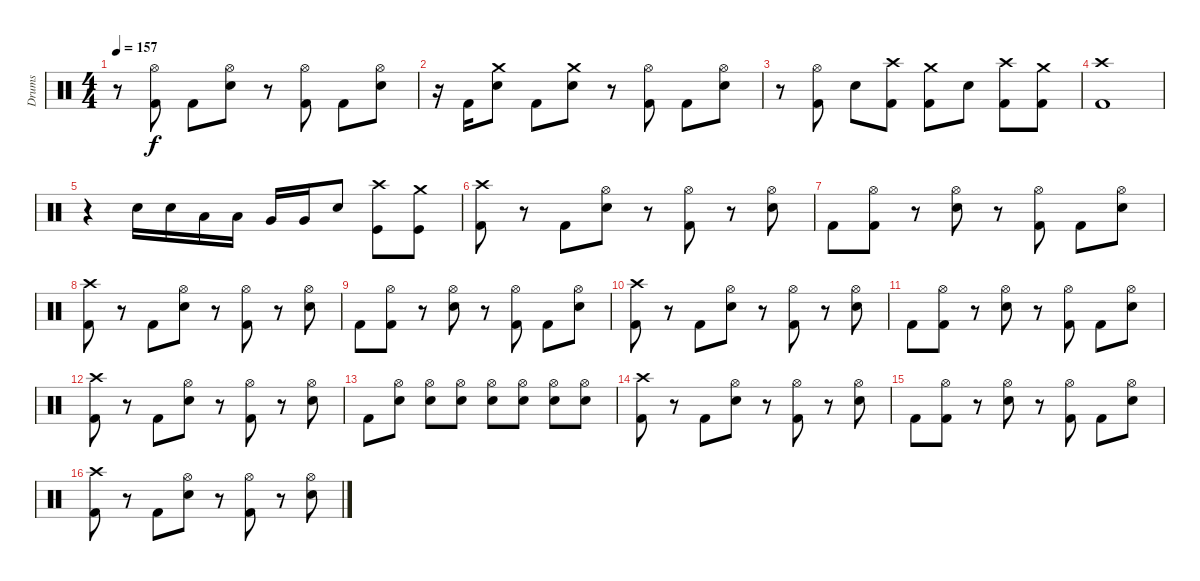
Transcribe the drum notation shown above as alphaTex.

\track ("Drums" "Drums") {instrument percussion}
\staff {score}
\articulation defaults
\ts (4 4)
\tempo 157
\clef neutral
\ks c
r.8{dy f} ("Hi-Hat (open)" "Kick (hit) 2").8 "Kick (hit) 2".8 ("Hi-Hat (open)" "Electric Snare (hit)").8 r.8 ("Hi-Hat (open)" "Kick (hit) 2").8 "Kick (hit) 2".8 ("Hi-Hat (open)" "Electric Snare (hit)").8 |
r.16 "Kick (hit) 2".16 ("Crash medium (hit)" "Electric Snare (hit)").8 "Kick (hit) 2".8 ("Crash medium (hit)" "Electric Snare (hit)").8 r.8 ("Hi-Hat (open)" "Kick (hit) 2").8 "Kick (hit) 2".8 ("Hi-Hat (open)" "Electric Snare (hit)").8 |
r.8 ("Hi-Hat (open)" "Kick (hit) 2").8 "Electric Snare (hit)".8 ("Crash high (hit)" "Kick (hit) 2").8 ("Crash medium (hit)" "Kick (hit) 2").8 "Electric Snare (hit)".8 ("Crash high (hit)" "Kick (hit) 2").8 ("Crash medium (hit)" "Kick (hit) 2").8 |
("Crash high (hit)" "Kick (hit) 2").1 |
r.4 "Electric Snare (hit)".16 "Electric Snare (hit)".16 "Low Tom (hit)".16 "Low Tom (hit)".16 "Very Low Tom (hit)".16 "Very Low Tom (hit)".16 "Electric Snare (hit)".8 ("Crash high (hit)" "Kick (hit)").8 ("Crash medium (hit)" "Kick (hit)").8 |
("Crash high (hit)" "Kick (hit) 2").8 r.8 "Kick (hit) 2".8 ("Hi-Hat (open)" "Electric Snare (hit)").8 r.8 ("Hi-Hat (open)" "Kick (hit) 2").8 r.8 ("Hi-Hat (open)" "Electric Snare (hit)").8 |
"Kick (hit) 2".8 ("Hi-Hat (open)" "Kick (hit) 2").8 r.8 ("Hi-Hat (open)" "Electric Snare (hit)").8 r.8 ("Hi-Hat (open)" "Kick (hit) 2").8 "Kick (hit) 2".8 ("Hi-Hat (open)" "Electric Snare (hit)").8 |
("Crash high (hit)" "Kick (hit) 2").8 r.8 "Kick (hit) 2".8 ("Hi-Hat (open)" "Electric Snare (hit)").8 r.8 ("Hi-Hat (open)" "Kick (hit) 2").8 r.8 ("Hi-Hat (open)" "Electric Snare (hit)").8 |
"Kick (hit) 2".8 ("Hi-Hat (open)" "Kick (hit) 2").8 r.8 ("Hi-Hat (open)" "Electric Snare (hit)").8 r.8 ("Hi-Hat (open)" "Kick (hit) 2").8 "Kick (hit) 2".8 ("Hi-Hat (open)" "Electric Snare (hit)").8 |
("Crash high (hit)" "Kick (hit) 2").8 r.8 "Kick (hit) 2".8 ("Hi-Hat (open)" "Electric Snare (hit)").8 r.8 ("Hi-Hat (open)" "Kick (hit) 2").8 r.8 ("Hi-Hat (open)" "Electric Snare (hit)").8 |
"Kick (hit) 2".8 ("Hi-Hat (open)" "Kick (hit) 2").8 r.8 ("Hi-Hat (open)" "Electric Snare (hit)").8 r.8 ("Hi-Hat (open)" "Kick (hit) 2").8 "Kick (hit) 2".8 ("Hi-Hat (open)" "Electric Snare (hit)").8 |
("Crash high (hit)" "Kick (hit) 2").8 r.8 "Kick (hit) 2".8 ("Hi-Hat (open)" "Electric Snare (hit)").8 r.8 ("Hi-Hat (open)" "Kick (hit) 2").8 r.8 ("Hi-Hat (open)" "Electric Snare (hit)").8 |
"Kick (hit) 2".8 ("Hi-Hat (open)" "Electric Snare (hit)").8 ("Hi-Hat (open)" "Electric Snare (hit)").8 ("Hi-Hat (open)" "Electric Snare (hit)").8 ("Hi-Hat (open)" "Electric Snare (hit)").8 ("Hi-Hat (open)" "Electric Snare (hit)").8 ("Hi-Hat (open)" "Electric Snare (hit)").8 ("Hi-Hat (open)" "Electric Snare (hit)").8 |
("Crash high (hit)" "Kick (hit) 2").8 r.8 "Kick (hit) 2".8 ("Hi-Hat (open)" "Electric Snare (hit)").8 r.8 ("Hi-Hat (open)" "Kick (hit) 2").8 r.8 ("Hi-Hat (open)" "Electric Snare (hit)").8 |
"Kick (hit) 2".8 ("Hi-Hat (open)" "Kick (hit) 2").8 r.8 ("Hi-Hat (open)" "Electric Snare (hit)").8 r.8 ("Hi-Hat (open)" "Kick (hit) 2").8 "Kick (hit) 2".8 ("Hi-Hat (open)" "Electric Snare (hit)").8 |
("Crash high (hit)" "Kick (hit) 2").8 r.8 "Kick (hit) 2".8 ("Hi-Hat (open)" "Electric Snare (hit)").8 r.8 ("Hi-Hat (open)" "Kick (hit) 2").8 r.8 ("Hi-Hat (open)" "Electric Snare (hit)").8
